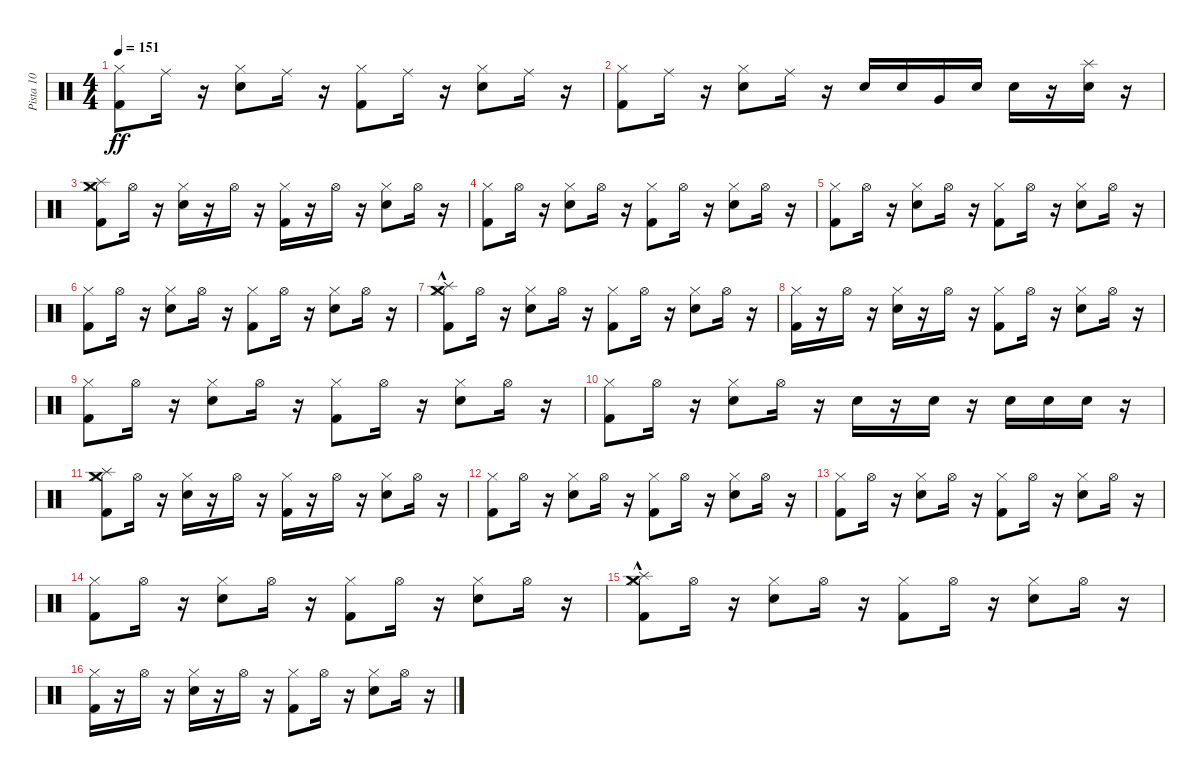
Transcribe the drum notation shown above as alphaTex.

\track ("Pista 10" "Pista 10") {instrument percussion}
\staff {score}
\articulation defaults
\ts (4 4)
\tempo 151
\clef neutral
\ks c
("Hi-Hat (closed)" "Kick (hit) 2").8{dy ff} "Ride (middle)".16 r.16 ("Hi-Hat (closed)" "Snare (hit) 2").8 "Ride (middle)".16 r.16 ("Hi-Hat (closed)" "Kick (hit) 2").8 "Ride (middle)".16 r.16 ("Hi-Hat (closed)" "Snare (hit) 2").8 "Ride (middle)".16 r.16 |
("Hi-Hat (closed)" "Kick (hit) 2").8 "Ride (middle)".16 r.16 ("Hi-Hat (closed)" "Snare (hit) 2").8 "Ride (middle)".16 r.16 "Snare (hit) 2".16 "Snare (hit) 2".16 "Very Low Tom (hit)".16 "Snare (hit) 2".16 "Snare (hit) 2".16 r.16 ("Splash (hit)" "Snare (hit) 2").16 r.16 |
("Crash medium (hit)" "Splash (hit)" "Hi-Hat (closed)" "Kick (hit) 2").8 "Hi-Hat (open)".16 r.16 ("Hi-Hat (closed)" "Snare (hit) 2").16 r.16 "Hi-Hat (open)".16 r.16 ("Kick (hit) 2" "Hi-Hat (closed)").16 r.16 "Hi-Hat (open)".16 r.16 ("Snare (hit) 2" "Hi-Hat (closed)").8 "Hi-Hat (open)".16 r.16 |
("Kick (hit) 2" "Hi-Hat (closed)").8 "Hi-Hat (open)".16 r.16 ("Snare (hit) 2" "Hi-Hat (closed)").8 "Hi-Hat (open)".16 r.16 ("Kick (hit) 2" "Hi-Hat (closed)").8 "Hi-Hat (open)".16 r.16 ("Snare (hit) 2" "Hi-Hat (closed)").8 "Hi-Hat (open)".16 r.16 |
("Kick (hit) 2" "Hi-Hat (closed)").8 "Hi-Hat (open)".16 r.16 ("Hi-Hat (closed)" "Snare (hit) 2").8 "Hi-Hat (open)".16 r.16 ("Hi-Hat (closed)" "Kick (hit) 2").8 "Hi-Hat (open)".16 r.16 ("Hi-Hat (closed)" "Snare (hit) 2").8 "Hi-Hat (open)".16 r.16 |
("Kick (hit) 2" "Hi-Hat (closed)").8 "Hi-Hat (open)".16 r.16 ("Snare (hit) 2" "Hi-Hat (closed)").8 "Hi-Hat (open)".16 r.16 ("Kick (hit) 2" "Hi-Hat (closed)").8 "Hi-Hat (open)".16 r.16 ("Snare (hit) 2" "Hi-Hat (closed)").8 "Hi-Hat (open)".16 r.16 |
("Kick (hit) 2" "Hi-Hat (closed)" "Crash medium (hit)"{hac} "Splash (hit)"{hac}).8 "Hi-Hat (open)".16 r.16 ("Snare (hit) 2" "Hi-Hat (closed)").8 "Hi-Hat (open)".16 r.16 ("Kick (hit) 2" "Hi-Hat (closed)").8 "Hi-Hat (open)".16 r.16 ("Hi-Hat (closed)" "Snare (hit) 2").8 "Hi-Hat (open)".16 r.16 |
("Hi-Hat (closed)" "Kick (hit) 2").16 r.16 "Hi-Hat (open)".16 r.16 ("Hi-Hat (closed)" "Snare (hit) 2").16 r.16 "Hi-Hat (open)".16 r.16 ("Kick (hit) 2" "Hi-Hat (closed)").8 "Hi-Hat (open)".16 r.16 ("Snare (hit) 2" "Hi-Hat (closed)").8 "Hi-Hat (open)".16 r.16 |
("Kick (hit) 2" "Hi-Hat (closed)").8 "Hi-Hat (open)".16 r.16 ("Snare (hit) 2" "Hi-Hat (closed)").8 "Hi-Hat (open)".16 r.16 ("Kick (hit) 2" "Hi-Hat (closed)").8 "Hi-Hat (open)".16 r.16 ("Snare (hit) 2" "Hi-Hat (closed)").8 "Hi-Hat (open)".16 r.16 |
("Kick (hit) 2" "Hi-Hat (closed)").8 "Hi-Hat (open)".16 r.16 ("Hi-Hat (closed)" "Snare (hit) 2").8 "Hi-Hat (open)".16 r.16 "Snare (hit) 2".16 r.16 "Snare (hit) 2".16 r.16 "Snare (hit) 2".16 "Snare (hit) 2".16 "Snare (hit) 2".16 r.16 |
("Hi-Hat (closed)" "Kick (hit) 2" "Splash (hit)" "Crash medium (hit)").8 "Hi-Hat (open)".16 r.16 ("Hi-Hat (closed)" "Snare (hit) 2").16 r.16 "Hi-Hat (open)".16 r.16 ("Hi-Hat (closed)" "Kick (hit) 2").16 r.16 "Hi-Hat (open)".16 r.16 ("Hi-Hat (closed)" "Snare (hit) 2").8 "Hi-Hat (open)".16 r.16 |
("Hi-Hat (closed)" "Kick (hit) 2").8 "Hi-Hat (open)".16 r.16 ("Hi-Hat (closed)" "Snare (hit) 2").8 "Hi-Hat (open)".16 r.16 ("Hi-Hat (closed)" "Kick (hit) 2").8 "Hi-Hat (open)".16 r.16 ("Hi-Hat (closed)" "Snare (hit) 2").8 "Hi-Hat (open)".16 r.16 |
("Kick (hit) 2" "Hi-Hat (closed)").8 "Hi-Hat (open)".16 r.16 ("Snare (hit) 2" "Hi-Hat (closed)").8 "Hi-Hat (open)".16 r.16 ("Hi-Hat (closed)" "Kick (hit) 2").8 "Hi-Hat (open)".16 r.16 ("Hi-Hat (closed)" "Snare (hit) 2").8 "Hi-Hat (open)".16 r.16 |
("Hi-Hat (closed)" "Kick (hit) 2").8 "Hi-Hat (open)".16 r.16 ("Hi-Hat (closed)" "Snare (hit) 2").8 "Hi-Hat (open)".16 r.16 ("Hi-Hat (closed)" "Kick (hit) 2").8 "Hi-Hat (open)".16 r.16 ("Hi-Hat (closed)" "Snare (hit) 2").8 "Hi-Hat (open)".16 r.16 |
("Hi-Hat (closed)" "Kick (hit) 2" "Crash medium (hit)"{hac} "Splash (hit)"{hac}).8 "Hi-Hat (open)".16 r.16 ("Hi-Hat (closed)" "Snare (hit) 2").8 "Hi-Hat (open)".16 r.16 ("Kick (hit) 2" "Hi-Hat (closed)").8 "Hi-Hat (open)".16 r.16 ("Snare (hit) 2" "Hi-Hat (closed)").8 "Hi-Hat (open)".16 r.16 |
("Kick (hit) 2" "Hi-Hat (closed)").16 r.16 "Hi-Hat (open)".16 r.16 ("Hi-Hat (closed)" "Snare (hit) 2").16 r.16 "Hi-Hat (open)".16 r.16 ("Hi-Hat (closed)" "Kick (hit) 2").8 "Hi-Hat (open)".16 r.16 ("Hi-Hat (closed)" "Snare (hit) 2").8 "Hi-Hat (open)".16 r.16
